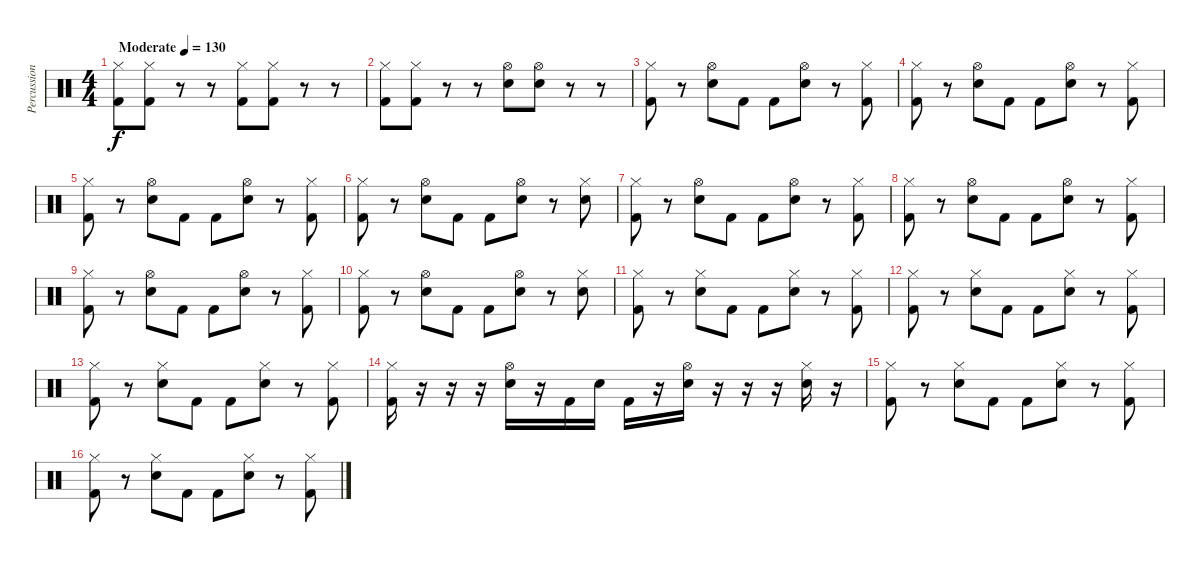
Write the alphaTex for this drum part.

\track ("Percussion" "Percussion") {instrument percussion}
\staff {score}
\articulation defaults
\ts (4 4)
\tempo (130 "Moderate")
\clef neutral
\ks c
("Kick (hit) 2" "Hi-Hat (closed)").8{dy f} ("Kick (hit) 2" "Hi-Hat (closed)").8 r.8 r.8 ("Kick (hit) 2" "Hi-Hat (closed)").8 ("Kick (hit) 2" "Hi-Hat (closed)").8 r.8 r.8 |
("Kick (hit) 2" "Hi-Hat (closed)").8 ("Kick (hit) 2" "Hi-Hat (closed)").8 r.8 r.8 ("Electric Snare (hit)" "Hi-Hat (open)").8 ("Electric Snare (hit)" "Hi-Hat (open)").8 r.8 r.8 |
("Kick (hit) 2" "Hi-Hat (closed)").8 r.8 ("Electric Snare (hit)" "Hi-Hat (open)").8 "Kick (hit) 2".8 "Kick (hit) 2".8 ("Electric Snare (hit)" "Hi-Hat (open)").8 r.8 ("Kick (hit) 2" "Hi-Hat (closed)").8 |
("Kick (hit) 2" "Hi-Hat (closed)").8 r.8 ("Electric Snare (hit)" "Hi-Hat (open)").8 "Kick (hit) 2".8 "Kick (hit) 2".8 ("Electric Snare (hit)" "Hi-Hat (open)").8 r.8 ("Kick (hit) 2" "Hi-Hat (closed)").8 |
("Kick (hit) 2" "Hi-Hat (closed)").8 r.8 ("Electric Snare (hit)" "Hi-Hat (open)").8 "Kick (hit) 2".8 "Kick (hit) 2".8 ("Electric Snare (hit)" "Hi-Hat (open)").8 r.8 ("Kick (hit) 2" "Hi-Hat (closed)").8 |
("Kick (hit) 2" "Hi-Hat (closed)").8 r.8 ("Electric Snare (hit)" "Hi-Hat (open)").8 "Kick (hit) 2".8 "Kick (hit) 2".8 ("Electric Snare (hit)" "Hi-Hat (open)").8 r.8 ("Electric Snare (hit)" "Hi-Hat (closed)").8 |
("Kick (hit) 2" "Hi-Hat (closed)").8 r.8 ("Electric Snare (hit)" "Hi-Hat (open)").8 "Kick (hit) 2".8 "Kick (hit) 2".8 ("Electric Snare (hit)" "Hi-Hat (open)").8 r.8 ("Kick (hit) 2" "Hi-Hat (closed)").8 |
("Kick (hit) 2" "Hi-Hat (closed)").8 r.8 ("Electric Snare (hit)" "Hi-Hat (open)").8 "Kick (hit) 2".8 "Kick (hit) 2".8 ("Electric Snare (hit)" "Hi-Hat (open)").8 r.8 ("Kick (hit) 2" "Hi-Hat (closed)").8 |
("Kick (hit) 2" "Hi-Hat (closed)").8 r.8 ("Electric Snare (hit)" "Hi-Hat (open)").8 "Kick (hit) 2".8 "Kick (hit) 2".8 ("Electric Snare (hit)" "Hi-Hat (open)").8 r.8 ("Kick (hit) 2" "Hi-Hat (closed)").8 |
("Kick (hit) 2" "Hi-Hat (closed)").8 r.8 ("Electric Snare (hit)" "Hi-Hat (open)").8 "Kick (hit) 2".8 "Kick (hit) 2".8 ("Electric Snare (hit)" "Hi-Hat (open)").8 r.8 ("Electric Snare (hit)" "Hi-Hat (closed)").8 |
("Kick (hit) 2" "Hi-Hat (closed)").8 r.8 ("Electric Snare (hit)" "Hi-Hat (closed)").8 "Kick (hit) 2".8 "Kick (hit) 2".8 ("Electric Snare (hit)" "Hi-Hat (closed)").8 r.8 ("Kick (hit) 2" "Hi-Hat (closed)").8 |
("Kick (hit) 2" "Hi-Hat (closed)").8 r.8 ("Electric Snare (hit)" "Hi-Hat (closed)").8 "Kick (hit) 2".8 "Kick (hit) 2".8 ("Electric Snare (hit)" "Hi-Hat (closed)").8 r.8 ("Kick (hit) 2" "Hi-Hat (closed)").8 |
("Kick (hit) 2" "Hi-Hat (closed)").8 r.8 ("Electric Snare (hit)" "Hi-Hat (closed)").8 "Kick (hit) 2".8 "Kick (hit) 2".8 ("Electric Snare (hit)" "Hi-Hat (closed)").8 r.8 ("Kick (hit) 2" "Hi-Hat (closed)").8 |
("Kick (hit) 2" "Hi-Hat (closed)").16 r.16 r.16 r.16 ("Electric Snare (hit)" "Hi-Hat (open)").16 r.16 "Kick (hit) 2".16 "Snare (hit) 2".16 "Kick (hit) 2".16 r.16 ("Electric Snare (hit)" "Hi-Hat (open)").16 r.16 r.16 r.16 ("Electric Snare (hit)" "Hi-Hat (closed)").16 r.16 |
("Kick (hit) 2" "Hi-Hat (closed)").8 r.8 ("Electric Snare (hit)" "Hi-Hat (closed)").8 "Kick (hit) 2".8 "Kick (hit) 2".8 ("Electric Snare (hit)" "Hi-Hat (closed)").8 r.8 ("Kick (hit) 2" "Hi-Hat (closed)").8 |
("Kick (hit) 2" "Hi-Hat (closed)").8 r.8 ("Electric Snare (hit)" "Hi-Hat (closed)").8 "Kick (hit) 2".8 "Kick (hit) 2".8 ("Electric Snare (hit)" "Hi-Hat (closed)").8 r.8 ("Kick (hit) 2" "Hi-Hat (closed)").8
